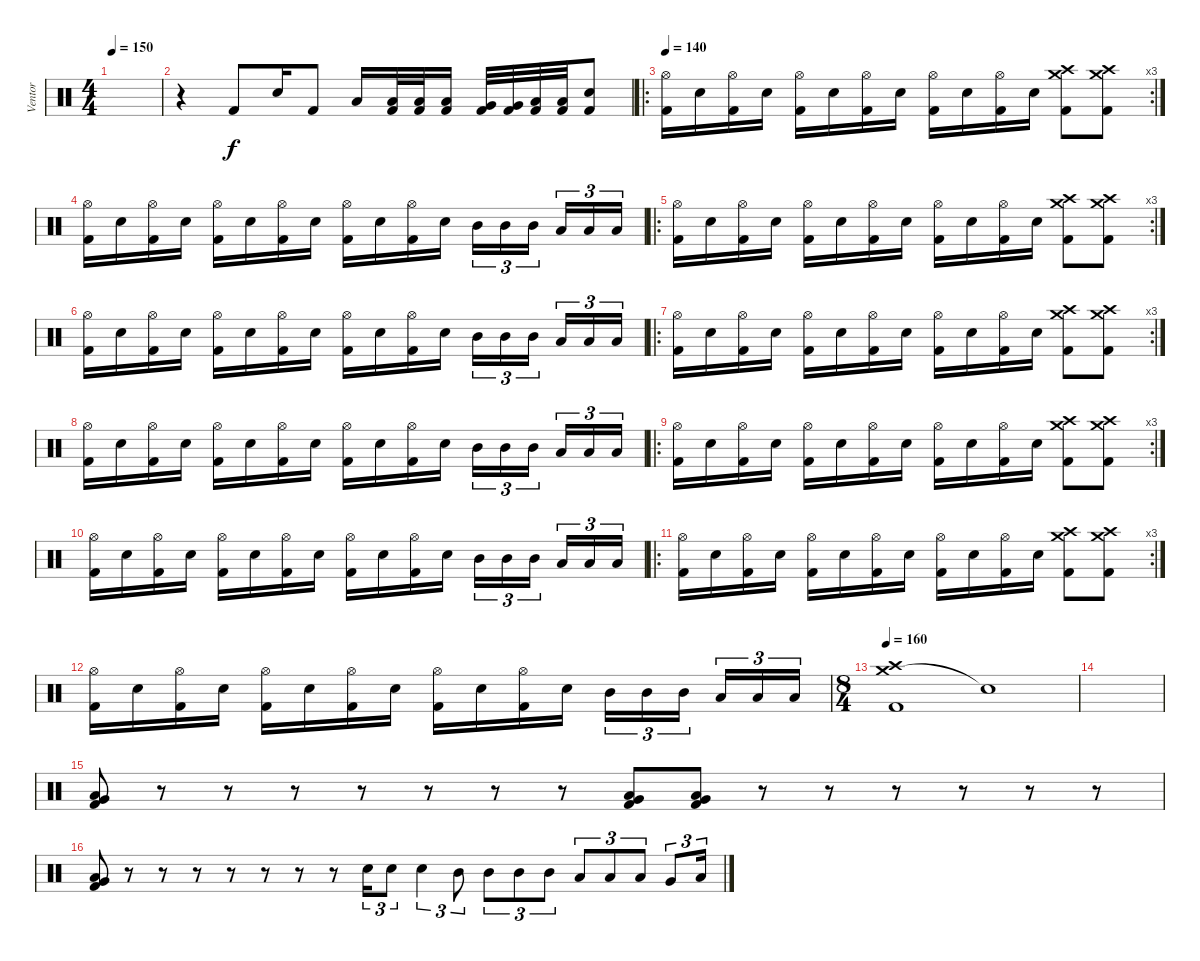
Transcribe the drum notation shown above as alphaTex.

\track ("Ventor" "Ventor") {instrument percussion}
\staff {score}
\articulation defaults
\ts (4 4)
\tempo 150
\clef neutral
\ks c
|
r.4 "Kick (hit) 2".8 "Snare (hit) 2".16 "Kick (hit) 2".8 "Low Floor Tom (hit)".16 ("Low Tom (hit)" "Kick (hit) 2").32 ("Low Tom (hit)" "Kick (hit) 2").32 ("Low Tom (hit)" "Kick (hit) 2").16 ("Very Low Tom (hit)" "Kick (hit) 2").32 ("Very Low Tom (hit)" "Kick (hit) 2").32 ("Low Floor Tom (hit)" "Kick (hit) 2").32 ("Low Floor Tom (hit)" "Kick (hit) 2").32 ("Snare (hit) 2" "Kick (hit) 2").8 |
\ro
\rc 3
\tempo 140
("Hi-Hat (open)" "Kick (hit) 2").16 "Snare (hit) 2".16 ("Hi-Hat (open)" "Kick (hit) 2").16 "Snare (hit) 2".16 ("Hi-Hat (open)" "Kick (hit) 2").16 "Snare (hit) 2".16 ("Hi-Hat (open)" "Kick (hit) 2").16 "Snare (hit) 2".16 ("Hi-Hat (open)" "Kick (hit) 2").16 "Snare (hit) 2".16 ("Hi-Hat (open)" "Kick (hit) 2").16 "Snare (hit) 2".16 ("Crash high (hit)" "Crash medium (hit)" "Kick (hit) 2").8 ("Crash high (hit)" "Crash medium (hit)" "Kick (hit) 2").8 |
("Hi-Hat (open)" "Kick (hit) 2").16 "Snare (hit) 2".16 ("Hi-Hat (open)" "Kick (hit) 2").16 "Snare (hit) 2".16 ("Hi-Hat (open)" "Kick (hit) 2").16 "Snare (hit) 2".16 ("Hi-Hat (open)" "Kick (hit) 2").16 "Snare (hit) 2".16 ("Hi-Hat (open)" "Kick (hit) 2").16 "Snare (hit) 2".16 ("Hi-Hat (open)" "Kick (hit) 2").16 "Snare (hit) 2".16 "Mid Tom (hit)".16{tu (3 2)} "Mid Tom (hit)".16{tu (3 2)} "Mid Tom (hit)".16{tu (3 2) beam splitsecondary} "Low Tom (hit)".16{tu (3 2)} "Low Tom (hit)".16{tu (3 2)} "Low Tom (hit)".16{tu (3 2)} |
\ro
\rc 3
("Hi-Hat (open)" "Kick (hit) 2").16 "Snare (hit) 2".16 ("Hi-Hat (open)" "Kick (hit) 2").16 "Snare (hit) 2".16 ("Hi-Hat (open)" "Kick (hit) 2").16 "Snare (hit) 2".16 ("Hi-Hat (open)" "Kick (hit) 2").16 "Snare (hit) 2".16 ("Hi-Hat (open)" "Kick (hit) 2").16 "Snare (hit) 2".16 ("Hi-Hat (open)" "Kick (hit) 2").16 "Snare (hit) 2".16 ("Crash high (hit)" "Crash medium (hit)" "Kick (hit) 2").8 ("Crash high (hit)" "Crash medium (hit)" "Kick (hit) 2").8 |
("Hi-Hat (open)" "Kick (hit) 2").16 "Snare (hit) 2".16 ("Hi-Hat (open)" "Kick (hit) 2").16 "Snare (hit) 2".16 ("Hi-Hat (open)" "Kick (hit) 2").16 "Snare (hit) 2".16 ("Hi-Hat (open)" "Kick (hit) 2").16 "Snare (hit) 2".16 ("Hi-Hat (open)" "Kick (hit) 2").16 "Snare (hit) 2".16 ("Hi-Hat (open)" "Kick (hit) 2").16 "Snare (hit) 2".16 "Mid Tom (hit)".16{tu (3 2)} "Mid Tom (hit)".16{tu (3 2)} "Mid Tom (hit)".16{tu (3 2) beam splitsecondary} "Low Tom (hit)".16{tu (3 2)} "Low Tom (hit)".16{tu (3 2)} "Low Tom (hit)".16{tu (3 2)} |
\ro
\rc 3
("Hi-Hat (open)" "Kick (hit) 2").16 "Snare (hit) 2".16 ("Hi-Hat (open)" "Kick (hit) 2").16 "Snare (hit) 2".16 ("Hi-Hat (open)" "Kick (hit) 2").16 "Snare (hit) 2".16 ("Hi-Hat (open)" "Kick (hit) 2").16 "Snare (hit) 2".16 ("Hi-Hat (open)" "Kick (hit) 2").16 "Snare (hit) 2".16 ("Hi-Hat (open)" "Kick (hit) 2").16 "Snare (hit) 2".16 ("Crash high (hit)" "Crash medium (hit)" "Kick (hit) 2").8 ("Crash high (hit)" "Crash medium (hit)" "Kick (hit) 2").8 |
("Hi-Hat (open)" "Kick (hit) 2").16 "Snare (hit) 2".16 ("Hi-Hat (open)" "Kick (hit) 2").16 "Snare (hit) 2".16 ("Hi-Hat (open)" "Kick (hit) 2").16 "Snare (hit) 2".16 ("Hi-Hat (open)" "Kick (hit) 2").16 "Snare (hit) 2".16 ("Hi-Hat (open)" "Kick (hit) 2").16 "Snare (hit) 2".16 ("Hi-Hat (open)" "Kick (hit) 2").16 "Snare (hit) 2".16 "Mid Tom (hit)".16{tu (3 2)} "Mid Tom (hit)".16{tu (3 2)} "Mid Tom (hit)".16{tu (3 2) beam splitsecondary} "Low Tom (hit)".16{tu (3 2)} "Low Tom (hit)".16{tu (3 2)} "Low Tom (hit)".16{tu (3 2)} |
\ro
\rc 3
("Hi-Hat (open)" "Kick (hit) 2").16 "Snare (hit) 2".16 ("Hi-Hat (open)" "Kick (hit) 2").16 "Snare (hit) 2".16 ("Hi-Hat (open)" "Kick (hit) 2").16 "Snare (hit) 2".16 ("Hi-Hat (open)" "Kick (hit) 2").16 "Snare (hit) 2".16 ("Hi-Hat (open)" "Kick (hit) 2").16 "Snare (hit) 2".16 ("Hi-Hat (open)" "Kick (hit) 2").16 "Snare (hit) 2".16 ("Crash high (hit)" "Crash medium (hit)" "Kick (hit) 2").8 ("Crash high (hit)" "Crash medium (hit)" "Kick (hit) 2").8 |
("Hi-Hat (open)" "Kick (hit) 2").16 "Snare (hit) 2".16 ("Hi-Hat (open)" "Kick (hit) 2").16 "Snare (hit) 2".16 ("Hi-Hat (open)" "Kick (hit) 2").16 "Snare (hit) 2".16 ("Hi-Hat (open)" "Kick (hit) 2").16 "Snare (hit) 2".16 ("Hi-Hat (open)" "Kick (hit) 2").16 "Snare (hit) 2".16 ("Hi-Hat (open)" "Kick (hit) 2").16 "Snare (hit) 2".16 "Mid Tom (hit)".16{tu (3 2)} "Mid Tom (hit)".16{tu (3 2)} "Mid Tom (hit)".16{tu (3 2) beam splitsecondary} "Low Tom (hit)".16{tu (3 2)} "Low Tom (hit)".16{tu (3 2)} "Low Tom (hit)".16{tu (3 2)} |
\ro
\rc 3
("Hi-Hat (open)" "Kick (hit) 2").16 "Snare (hit) 2".16 ("Hi-Hat (open)" "Kick (hit) 2").16 "Snare (hit) 2".16 ("Hi-Hat (open)" "Kick (hit) 2").16 "Snare (hit) 2".16 ("Hi-Hat (open)" "Kick (hit) 2").16 "Snare (hit) 2".16 ("Hi-Hat (open)" "Kick (hit) 2").16 "Snare (hit) 2".16 ("Hi-Hat (open)" "Kick (hit) 2").16 "Snare (hit) 2".16 ("Crash high (hit)" "Crash medium (hit)" "Kick (hit) 2").8 ("Crash high (hit)" "Crash medium (hit)" "Kick (hit) 2").8 |
("Hi-Hat (open)" "Kick (hit) 2").16 "Snare (hit) 2".16 ("Hi-Hat (open)" "Kick (hit) 2").16 "Snare (hit) 2".16 ("Hi-Hat (open)" "Kick (hit) 2").16 "Snare (hit) 2".16 ("Hi-Hat (open)" "Kick (hit) 2").16 "Snare (hit) 2".16 ("Hi-Hat (open)" "Kick (hit) 2").16 "Snare (hit) 2".16 ("Hi-Hat (open)" "Kick (hit) 2").16 "Snare (hit) 2".16 "Mid Tom (hit)".16{tu (3 2)} "Mid Tom (hit)".16{tu (3 2)} "Mid Tom (hit)".16{tu (3 2) beam splitsecondary} "Low Tom (hit)".16{tu (3 2)} "Low Tom (hit)".16{tu (3 2)} "Low Tom (hit)".16{tu (3 2)} |
\ts (8 4)
\tempo 160
("Crash medium (hit)" "Crash high (hit)" "Kick (hit) 2").1 "Snare (hit)"{t}.1 |
|
("Low Tom (hit)" "Very Low Tom (hit)" "Kick (hit) 2").8 r.8 r.8 r.8 r.8 r.8 r.8 r.8 ("Low Tom (hit)" "Very Low Tom (hit)" "Kick (hit) 2").8 ("Low Tom (hit)" "Very Low Tom (hit)" "Kick (hit) 2").8 r.8 r.8 r.8 r.8 r.8 r.8 |
("Low Tom (hit)" "Very Low Tom (hit)" "Kick (hit) 2").8 r.8 r.8 r.8 r.8 r.8 r.8 r.8 "Snare (hit) 2".16{tu (3 2)} "Snare (hit) 2".8{tu (3 2)} "Snare (hit) 2".4{tu (3 2)} "Mid Tom (hit)".8{tu (3 2)} "Mid Tom (hit)".8{tu (3 2)} "Mid Tom (hit)".8{tu (3 2)} "Mid Tom (hit)".8{tu (3 2)} "Low Tom (hit)".8{tu (3 2)} "Low Tom (hit)".8{tu (3 2)} "Low Tom (hit)".8{tu (3 2)} "Very Low Tom (hit)".8{tu (3 2)} "Low Floor Tom (hit)".16{tu (3 2)}
